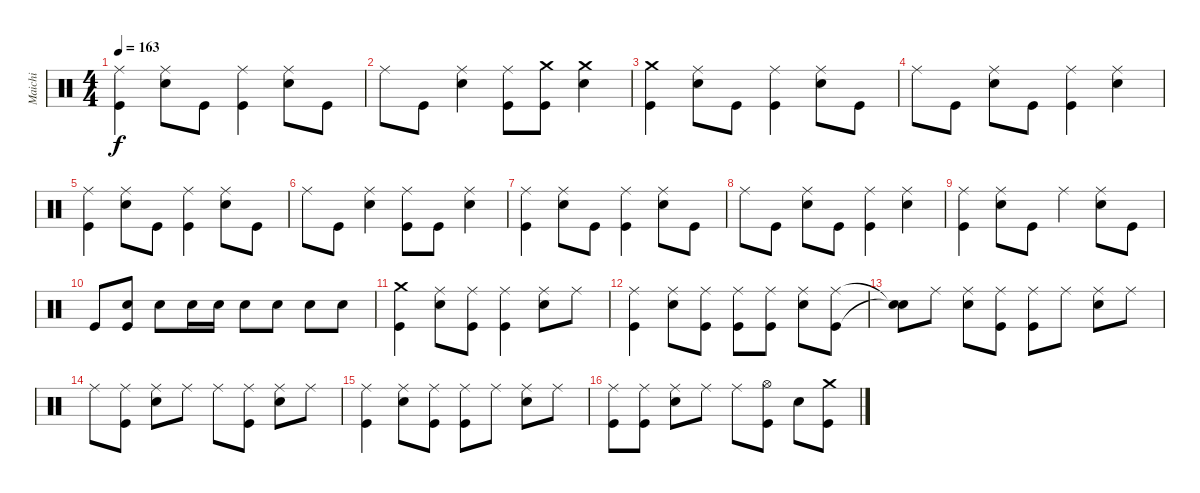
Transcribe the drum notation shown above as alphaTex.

\track ("Maichi" "Maichi") {instrument percussion}
\staff {score}
\articulation defaults
\ts (4 4)
\tempo 163
\clef neutral
\ks c
("Ride (middle)" "Kick (hit)").4{dy f} ("Electric Snare (hit)" "Ride (middle)").8 "Kick (hit)".8 ("Ride (middle)" "Kick (hit)").4 ("Ride (middle)" "Electric Snare (hit)").8 "Kick (hit)".8 |
"Ride (middle)".8 "Kick (hit)".8 ("Electric Snare (hit)" "Ride (middle)").4 ("Kick (hit)" "Ride (middle)").8 ("Kick (hit)" "Crash medium (hit)").8 ("Crash medium (hit)" "Electric Snare (hit)").4 |
("Crash medium (hit)" "Kick (hit)").4 ("Electric Snare (hit)" "Ride (middle)").8 "Kick (hit)".8 ("Kick (hit)" "Ride (middle)").4 ("Electric Snare (hit)" "Ride (middle)").8 "Kick (hit)".8 |
"Ride (middle)".8 "Kick (hit)".8 ("Ride (middle)" "Electric Snare (hit)").8 "Kick (hit)".8 ("Ride (middle)" "Kick (hit)").4 ("Ride (middle)" "Electric Snare (hit)").4 |
("Kick (hit)" "Ride (middle)").4 ("Electric Snare (hit)" "Ride (middle)").8 "Kick (hit)".8 ("Ride (middle)" "Kick (hit)").4 ("Electric Snare (hit)" "Ride (middle)").8 "Kick (hit)".8 |
"Ride (middle)".8 "Kick (hit)".8 ("Electric Snare (hit)" "Ride (middle)").4 ("Ride (middle)" "Kick (hit)").8 "Kick (hit)".8 ("Electric Snare (hit)" "Ride (middle)").4 |
("Kick (hit)" "Ride (middle)").4 ("Electric Snare (hit)" "Ride (middle)").8 "Kick (hit)".8 ("Ride (middle)" "Kick (hit)").4 ("Electric Snare (hit)" "Ride (middle)").8 "Kick (hit)".8 |
"Ride (middle)".8 "Kick (hit)".8 ("Ride (middle)" "Electric Snare (hit)").8 "Kick (hit)".8 ("Ride (middle)" "Kick (hit)").4 ("Ride (middle)" "Electric Snare (hit)").4 |
("Kick (hit)" "Ride (middle)").4 ("Ride (middle)" "Electric Snare (hit)").8 "Kick (hit)".8 "Ride (middle)".4 ("Electric Snare (hit)" "Ride (middle)").8 "Kick (hit)".8 |
"Kick (hit)".8 ("Electric Snare (hit)" "Kick (hit)").8 "Electric Snare (hit)".8 "Electric Snare (hit)".16 "Electric Snare (hit)".16 "Electric Snare (hit)".8 "Electric Snare (hit)".8 "Electric Snare (hit)".8 "Electric Snare (hit)".8 |
("Kick (hit)" "Crash medium (hit)").4 ("Electric Snare (hit)" "Ride (middle)").8 ("Ride (middle)" "Kick (hit)").8 ("Ride (middle)" "Kick (hit)").4 ("Electric Snare (hit)" "Ride (middle)").8 "Ride (middle)".8 |
("Kick (hit)" "Ride (middle)").4 ("Electric Snare (hit)" "Ride (middle)").8 ("Ride (middle)" "Kick (hit)").8 ("Kick (hit)" "Ride (middle)").8 ("Ride (middle)" "Kick (hit)").8 ("Electric Snare (hit)" "Ride (middle)").8 ("Kick (hit)" "Ride (middle)").8 |
("Snare (hit)"{t} "Snare (hit)"{t}).8 "Ride (middle)".8 ("Ride (middle)" "Electric Snare (hit)").8 ("Ride (middle)" "Kick (hit)").8 ("Ride (middle)" "Kick (hit)").8 "Ride (middle)".8 ("Electric Snare (hit)" "Ride (middle)").8 "Ride (middle)".8 |
"Ride (middle)".8 ("Ride (middle)" "Kick (hit)").8 ("Electric Snare (hit)" "Ride (middle)").8 "Ride (middle)".8 "Ride (middle)".8 ("Ride (middle)" "Kick (hit)").8 ("Ride (middle)" "Electric Snare (hit)").8 "Ride (middle)".8 |
("Ride (middle)" "Kick (hit)").4 ("Electric Snare (hit)" "Ride (middle)").8 ("Ride (middle)" "Kick (hit)").8 ("Ride (middle)" "Kick (hit)").8 "Ride (middle)".8 ("Electric Snare (hit)" "Ride (middle)").8 "Ride (middle)".8 |
("Kick (hit)" "Ride (middle)").8 ("Ride (middle)" "Kick (hit)").8 ("Electric Snare (hit)" "Ride (middle)").8 "Ride (middle)".8 "Ride (middle)".8 ("Hi-Hat (open)" "Kick (hit)").8 "Electric Snare (hit)".8 ("Kick (hit)" "Crash medium (hit)").8
